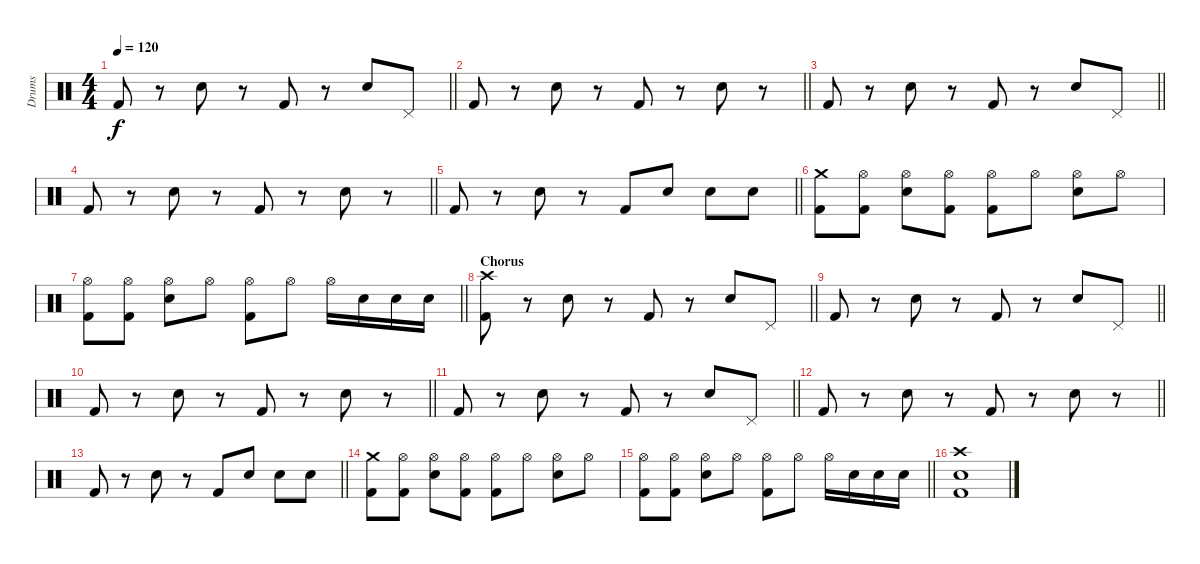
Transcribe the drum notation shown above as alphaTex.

\track ("Drums" "Drums") {instrument percussion}
\staff {score}
\articulation defaults
\ts (4 4)
\tempo 120
\clef neutral
\barLineRight lightlight
\ks c "Kick (hit) 2".8{dy f}
r.8 "Snare (hit) 2".8 r.8 "Kick (hit) 2".8 r.8 "Snare (hit) 2".8 "Pedal Hi-Hat (hit)".8 |
\barLineRight lightlight "Kick (hit) 2".8
r.8 "Snare (hit) 2".8 r.8 "Kick (hit) 2".8 r.8 "Snare (hit) 2".8 r.8 |
\barLineRight lightlight "Kick (hit) 2".8
r.8 "Snare (hit) 2".8 r.8 "Kick (hit) 2".8 r.8 "Snare (hit) 2".8 "Pedal Hi-Hat (hit)".8 |
\barLineRight lightlight "Kick (hit) 2".8
r.8 "Snare (hit) 2".8 r.8 "Kick (hit) 2".8 r.8 "Snare (hit) 2".8 r.8 |
\barLineRight lightlight "Kick (hit) 2".8
r.8 "Snare (hit) 2".8 r.8 "Kick (hit) 2".8 "Snare (hit) 2".8 "Snare (hit) 2".8 "Snare (hit) 2".8 |
("Crash medium (hit)" "Kick (hit) 2").8 ("Hi-Hat (open)" "Kick (hit) 2").8 ("Hi-Hat (open)" "Snare (hit) 2").8 ("Hi-Hat (open)" "Kick (hit) 2").8 ("Hi-Hat (open)" "Kick (hit) 2").8 "Hi-Hat (open)".8 ("Hi-Hat (open)" "Snare (hit) 2").8 "Hi-Hat (open)".8 |
\barLineRight lightlight
("Hi-Hat (open)" "Kick (hit) 2").8 ("Hi-Hat (open)" "Kick (hit) 2").8 ("Hi-Hat (open)" "Snare (hit) 2").8 "Hi-Hat (open)".8 ("Hi-Hat (open)" "Kick (hit) 2").8 "Hi-Hat (open)".8 "Hi-Hat (open)".16 "Snare (hit) 2".16 "Snare (hit) 2".16 "Snare (hit) 2".16 |
\section ("" "Chorus")
\barLineRight lightlight
("Crash high (hit)" "Kick (hit) 2").8 r.8 "Snare (hit) 2".8 r.8 "Kick (hit) 2".8 r.8 "Snare (hit) 2".8 "Pedal Hi-Hat (hit)".8 |
\barLineRight lightlight "Kick (hit) 2".8
r.8 "Snare (hit) 2".8 r.8 "Kick (hit) 2".8 r.8 "Snare (hit) 2".8 "Pedal Hi-Hat (hit)".8 |
\barLineRight lightlight "Kick (hit) 2".8
r.8 "Snare (hit) 2".8 r.8 "Kick (hit) 2".8 r.8 "Snare (hit) 2".8 r.8 |
\barLineRight lightlight "Kick (hit) 2".8
r.8 "Snare (hit) 2".8 r.8 "Kick (hit) 2".8 r.8 "Snare (hit) 2".8 "Pedal Hi-Hat (hit)".8 |
\barLineRight lightlight "Kick (hit) 2".8
r.8 "Snare (hit) 2".8 r.8 "Kick (hit) 2".8 r.8 "Snare (hit) 2".8 r.8 |
\barLineRight lightlight "Kick (hit) 2".8
r.8 "Snare (hit) 2".8 r.8 "Kick (hit) 2".8 "Snare (hit) 2".8 "Snare (hit) 2".8 "Snare (hit) 2".8 |
("Crash medium (hit)" "Kick (hit) 2").8 ("Hi-Hat (open)" "Kick (hit) 2").8 ("Hi-Hat (open)" "Snare (hit) 2").8 ("Hi-Hat (open)" "Kick (hit) 2").8 ("Hi-Hat (open)" "Kick (hit) 2").8 "Hi-Hat (open)".8 ("Hi-Hat (open)" "Snare (hit) 2").8 "Hi-Hat (open)".8 |
\barLineRight lightlight
("Hi-Hat (open)" "Kick (hit) 2").8 ("Hi-Hat (open)" "Kick (hit) 2").8 ("Hi-Hat (open)" "Snare (hit) 2").8 "Hi-Hat (open)".8 ("Hi-Hat (open)" "Kick (hit) 2").8 "Hi-Hat (open)".8 "Hi-Hat (open)".16 "Snare (hit) 2".16 "Snare (hit) 2".16 "Snare (hit) 2".16 |
("Crash high (hit)" "Snare (hit) 2" "Kick (hit) 2").1
